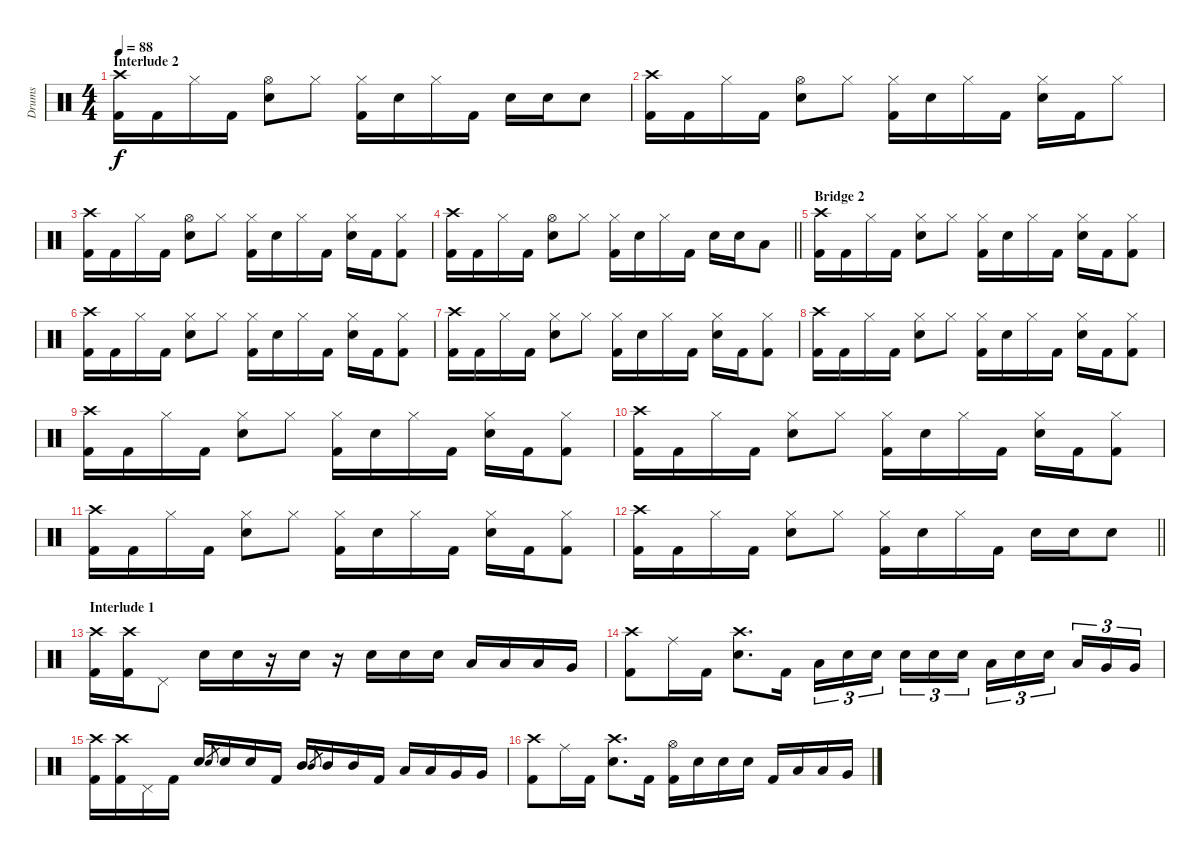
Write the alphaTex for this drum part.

\track ("Drums" "Drums") {instrument percussion}
\staff {score}
\articulation defaults
\ts (4 4)
\section ("" "Interlude 2")
\tempo 88
\clef neutral
\ks c
("Crash high (hit)" "Kick (hit) 2").16{dy f} "Kick (hit) 2".16 "Hi-Hat (closed)".16 "Kick (hit) 2".16 ("Hi-Hat (open)" "Snare (hit) 2").8 "Hi-Hat (closed)".8 ("Hi-Hat (closed)" "Kick (hit) 2").16 "Snare (hit) 2".16 "Hi-Hat (closed)".16 "Kick (hit) 2".16 "Snare (hit) 2".16 "Snare (hit) 2".16 "Snare (hit) 2".8 |
("Crash high (hit)" "Kick (hit) 2").16 "Kick (hit) 2".16 "Hi-Hat (closed)".16 "Kick (hit) 2".16 ("Hi-Hat (open)" "Snare (hit) 2").8 "Hi-Hat (closed)".8 ("Hi-Hat (closed)" "Kick (hit) 2").16 "Snare (hit) 2".16 "Hi-Hat (closed)".16 "Kick (hit) 2".16 ("Hi-Hat (closed)" "Snare (hit) 2").16 "Kick (hit) 2".16 "Hi-Hat (closed)".8 |
("Crash high (hit)" "Kick (hit) 2").16 "Kick (hit) 2".16 "Hi-Hat (closed)".16 "Kick (hit) 2".16 ("Hi-Hat (open)" "Snare (hit) 2").8 "Hi-Hat (closed)".8 ("Hi-Hat (closed)" "Kick (hit) 2").16 "Snare (hit) 2".16 "Hi-Hat (closed)".16 "Kick (hit) 2".16 ("Hi-Hat (closed)" "Snare (hit) 2").16 "Kick (hit) 2".16 ("Hi-Hat (closed)" "Kick (hit) 2").8 |
\barLineRight lightlight
("Crash high (hit)" "Kick (hit) 2").16 "Kick (hit) 2".16 "Hi-Hat (closed)".16 "Kick (hit) 2".16 ("Hi-Hat (open)" "Snare (hit) 2").8 "Hi-Hat (closed)".8 ("Hi-Hat (closed)" "Kick (hit) 2").16 "Snare (hit) 2".16 "Hi-Hat (closed)".16 "Kick (hit) 2".16 "Snare (hit) 2".16 "Snare (hit) 2".16 "Low Tom (hit)".8 |
\section ("" "Bridge 2")
("Crash high (hit)" "Kick (hit) 2").16 "Kick (hit) 2".16 "Hi-Hat (closed)".16 "Kick (hit) 2".16 ("Hi-Hat (closed)" "Snare (hit) 2").8 "Hi-Hat (closed)".8 ("Hi-Hat (closed)" "Kick (hit) 2").16 "Snare (hit) 2".16 "Hi-Hat (closed)".16 "Kick (hit) 2".16 ("Hi-Hat (closed)" "Snare (hit) 2").16 "Kick (hit) 2".16 ("Hi-Hat (closed)" "Kick (hit) 2").8 |
("Crash high (hit)" "Kick (hit) 2").16 "Kick (hit) 2".16 "Hi-Hat (closed)".16 "Kick (hit) 2".16 ("Hi-Hat (closed)" "Snare (hit) 2").8 "Hi-Hat (closed)".8 ("Hi-Hat (closed)" "Kick (hit) 2").16 "Snare (hit) 2".16 "Hi-Hat (closed)".16 "Kick (hit) 2".16 ("Hi-Hat (closed)" "Snare (hit) 2").16 "Kick (hit) 2".16 ("Hi-Hat (closed)" "Kick (hit) 2").8 |
("Crash high (hit)" "Kick (hit) 2").16 "Kick (hit) 2".16 "Hi-Hat (closed)".16 "Kick (hit) 2".16 ("Hi-Hat (closed)" "Snare (hit) 2").8 "Hi-Hat (closed)".8 ("Hi-Hat (closed)" "Kick (hit) 2").16 "Snare (hit) 2".16 "Hi-Hat (closed)".16 "Kick (hit) 2".16 ("Hi-Hat (closed)" "Snare (hit) 2").16 "Kick (hit) 2".16 ("Hi-Hat (closed)" "Kick (hit) 2").8 |
("Crash high (hit)" "Kick (hit) 2").16 "Kick (hit) 2".16 "Hi-Hat (closed)".16 "Kick (hit) 2".16 ("Hi-Hat (closed)" "Snare (hit) 2").8 "Hi-Hat (closed)".8 ("Hi-Hat (closed)" "Kick (hit) 2").16 "Snare (hit) 2".16 "Hi-Hat (closed)".16 "Kick (hit) 2".16 ("Hi-Hat (closed)" "Snare (hit) 2").16 "Kick (hit) 2".16 ("Hi-Hat (closed)" "Kick (hit) 2").8 |
("Crash high (hit)" "Kick (hit) 2").16 "Kick (hit) 2".16 "Hi-Hat (closed)".16 "Kick (hit) 2".16 ("Hi-Hat (closed)" "Snare (hit) 2").8 "Hi-Hat (closed)".8 ("Hi-Hat (closed)" "Kick (hit) 2").16 "Snare (hit) 2".16 "Hi-Hat (closed)".16 "Kick (hit) 2".16 ("Hi-Hat (closed)" "Snare (hit) 2").16 "Kick (hit) 2".16 ("Hi-Hat (closed)" "Kick (hit) 2").8 |
("Crash high (hit)" "Kick (hit) 2").16 "Kick (hit) 2".16 "Hi-Hat (closed)".16 "Kick (hit) 2".16 ("Hi-Hat (closed)" "Snare (hit) 2").8 "Hi-Hat (closed)".8 ("Hi-Hat (closed)" "Kick (hit) 2").16 "Snare (hit) 2".16 "Hi-Hat (closed)".16 "Kick (hit) 2".16 ("Hi-Hat (closed)" "Snare (hit) 2").16 "Kick (hit) 2".16 ("Hi-Hat (closed)" "Kick (hit) 2").8 |
("Crash high (hit)" "Kick (hit) 2").16 "Kick (hit) 2".16 "Hi-Hat (closed)".16 "Kick (hit) 2".16 ("Hi-Hat (closed)" "Snare (hit) 2").8 "Hi-Hat (closed)".8 ("Hi-Hat (closed)" "Kick (hit) 2").16 "Snare (hit) 2".16 "Hi-Hat (closed)".16 "Kick (hit) 2".16 ("Hi-Hat (closed)" "Snare (hit) 2").16 "Kick (hit) 2".16 ("Hi-Hat (closed)" "Kick (hit) 2").8 |
\barLineRight lightlight
("Crash high (hit)" "Kick (hit) 2").16 "Kick (hit) 2".16 "Hi-Hat (closed)".16 "Kick (hit) 2".16 ("Hi-Hat (closed)" "Snare (hit) 2").8 "Hi-Hat (closed)".8 ("Hi-Hat (closed)" "Kick (hit) 2").16 "Snare (hit) 2".16 "Hi-Hat (closed)".16 "Kick (hit) 2".16 "Snare (hit) 2".16 "Snare (hit) 2".16 "Snare (hit) 2".8 |
\section ("" "Interlude 1")
("Crash high (hit)" "Kick (hit) 2").16 ("Crash high (hit)" "Kick (hit) 2").16 "Pedal Hi-Hat (hit)".8 "Snare (hit) 2".16 "Snare (hit) 2".16 r.16 "Snare (hit) 2".16 r.16 "Snare (hit) 2".16 "Snare (hit) 2".16 "Snare (hit) 2".16 "Low Tom (hit)".16 "Low Tom (hit)".16 "Low Tom (hit)".16 "Very Low Tom (hit)".16 |
("Crash high (hit)" "Kick (hit) 2").8 "Ride (middle)".16 "Kick (hit) 2".16 ("Crash high (hit)" "Snare (hit) 2").8{d} "Kick (hit) 2".16 "Low Tom (hit)".16{tu (3 2)} "Snare (hit) 2".16{tu (3 2)} "Snare (hit) 2".16{tu (3 2) beam splitsecondary} "Snare (hit) 2".16{tu (3 2)} "Snare (hit) 2".16{tu (3 2)} "Snare (hit) 2".16{tu (3 2)} "Low Tom (hit)".16{tu (3 2)} "Snare (hit) 2".16{tu (3 2)} "Snare (hit) 2".16{tu (3 2) beam splitsecondary} "Low Tom (hit)".16{tu (3 2)} "Very Low Tom (hit)".16{tu (3 2)} "Very Low Tom (hit)".16{tu (3 2)} |
("Crash high (hit)" "Kick (hit) 2").16 ("Crash high (hit)" "Kick (hit) 2").16 "Pedal Hi-Hat (hit)".16 "Kick (hit) 2".16 "Snare (hit) 2".16 "Snare (hit) 2".8{gr} "Snare (hit) 2".16 "Snare (hit) 2".16 "Kick (hit) 2".16 "Mid Tom (hit)".16 "Mid Tom (hit)".8{gr} "Mid Tom (hit)".16 "Mid Tom (hit)".16 "Kick (hit) 2".16 "Low Tom (hit)".16 "Low Tom (hit)".16 "Very Low Tom (hit)".16 "Very Low Tom (hit)".16 |
("Crash high (hit)" "Kick (hit) 2").8 "Ride (middle)".16 "Kick (hit) 2".16 ("Crash high (hit)" "Snare (hit) 2").8{d} "Kick (hit) 2".16 ("Hi-Hat (open)" "Kick (hit) 2").16 "Snare (hit) 2".16 "Snare (hit) 2".16 "Snare (hit) 2".16 "Kick (hit) 2".16 "Low Tom (hit)".16 "Low Tom (hit)".16 "Very Low Tom (hit)".16
